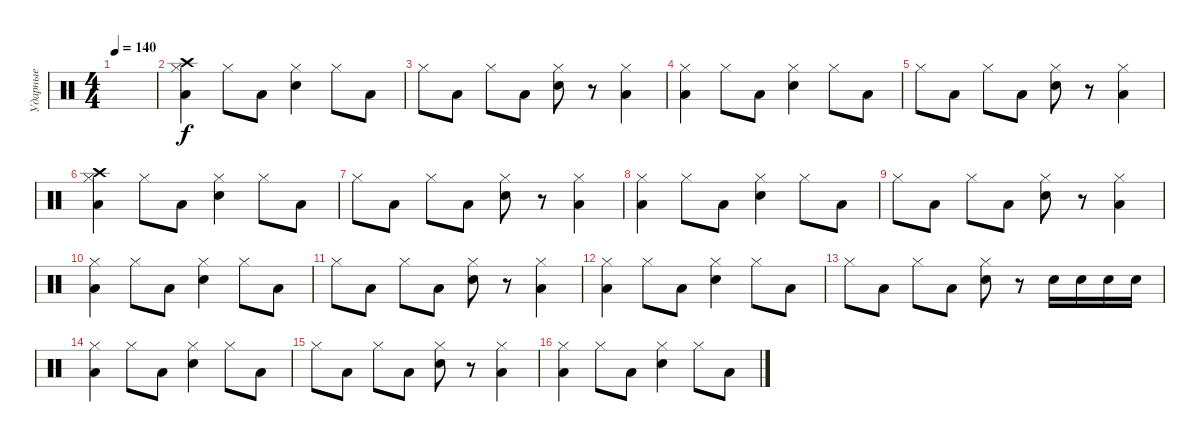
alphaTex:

\track ("Ударные" "Ударные") {instrument percussion}
\staff {score}
\articulation defaults
\ts (4 4)
\tempo 140
\clef neutral
\ks c
|
("Low Floor Tom (hit)" "Hi-Hat (closed)" "Crash high (hit)").4 "Hi-Hat (closed)".8 "Low Floor Tom (hit)".8 ("Hi-Hat (closed)" "Electric Snare (hit)").4 "Hi-Hat (closed)".8 "Low Floor Tom (hit)".8 |
"Hi-Hat (closed)".8 "Low Floor Tom (hit)".8 "Hi-Hat (closed)".8 "Low Floor Tom (hit)".8 ("Hi-Hat (closed)" "Electric Snare (hit)").8 r.8 ("Low Floor Tom (hit)" "Hi-Hat (closed)").4 |
("Low Floor Tom (hit)" "Hi-Hat (closed)").4 "Hi-Hat (closed)".8 "Low Floor Tom (hit)".8 ("Hi-Hat (closed)" "Electric Snare (hit)").4 "Hi-Hat (closed)".8 "Low Floor Tom (hit)".8 |
"Hi-Hat (closed)".8 "Low Floor Tom (hit)".8 "Hi-Hat (closed)".8 "Low Floor Tom (hit)".8 ("Hi-Hat (closed)" "Electric Snare (hit)").8 r.8 ("Low Floor Tom (hit)" "Hi-Hat (closed)").4 |
("Low Floor Tom (hit)" "Hi-Hat (closed)" "Crash high (hit)").4 "Hi-Hat (closed)".8 "Low Floor Tom (hit)".8 ("Hi-Hat (closed)" "Electric Snare (hit)").4 "Hi-Hat (closed)".8 "Low Floor Tom (hit)".8 |
"Hi-Hat (closed)".8 "Low Floor Tom (hit)".8 "Hi-Hat (closed)".8 "Low Floor Tom (hit)".8 ("Hi-Hat (closed)" "Electric Snare (hit)").8 r.8 ("Low Floor Tom (hit)" "Hi-Hat (closed)").4 |
("Low Floor Tom (hit)" "Hi-Hat (closed)").4 "Hi-Hat (closed)".8 "Low Floor Tom (hit)".8 ("Hi-Hat (closed)" "Electric Snare (hit)").4 "Hi-Hat (closed)".8 "Low Floor Tom (hit)".8 |
"Hi-Hat (closed)".8 "Low Floor Tom (hit)".8 "Hi-Hat (closed)".8 "Low Floor Tom (hit)".8 ("Hi-Hat (closed)" "Electric Snare (hit)").8 r.8 ("Low Floor Tom (hit)" "Hi-Hat (closed)").4 |
("Low Floor Tom (hit)" "Hi-Hat (closed)").4 "Hi-Hat (closed)".8 "Low Floor Tom (hit)".8 ("Hi-Hat (closed)" "Electric Snare (hit)").4 "Hi-Hat (closed)".8 "Low Floor Tom (hit)".8 |
"Hi-Hat (closed)".8 "Low Floor Tom (hit)".8 "Hi-Hat (closed)".8 "Low Floor Tom (hit)".8 ("Hi-Hat (closed)" "Electric Snare (hit)").8 r.8 ("Low Floor Tom (hit)" "Hi-Hat (closed)").4 |
("Low Floor Tom (hit)" "Hi-Hat (closed)").4 "Hi-Hat (closed)".8 "Low Floor Tom (hit)".8 ("Hi-Hat (closed)" "Electric Snare (hit)").4 "Hi-Hat (closed)".8 "Low Floor Tom (hit)".8 |
"Hi-Hat (closed)".8 "Low Floor Tom (hit)".8 "Hi-Hat (closed)".8 "Low Floor Tom (hit)".8 ("Hi-Hat (closed)" "Electric Snare (hit)").8 r.8 "Snare (hit) 2".16 "Snare (hit) 2".16 "Snare (hit) 2".16 "Snare (hit) 2".16 |
("Low Floor Tom (hit)" "Hi-Hat (closed)").4 "Hi-Hat (closed)".8 "Low Floor Tom (hit)".8 ("Hi-Hat (closed)" "Electric Snare (hit)").4 "Hi-Hat (closed)".8 "Low Floor Tom (hit)".8 |
"Hi-Hat (closed)".8 "Low Floor Tom (hit)".8 "Hi-Hat (closed)".8 "Low Floor Tom (hit)".8 ("Hi-Hat (closed)" "Electric Snare (hit)").8 r.8 ("Low Floor Tom (hit)" "Hi-Hat (closed)").4 |
("Low Floor Tom (hit)" "Hi-Hat (closed)").4 "Hi-Hat (closed)".8 "Low Floor Tom (hit)".8 ("Hi-Hat (closed)" "Electric Snare (hit)").4 "Hi-Hat (closed)".8 "Low Floor Tom (hit)".8
